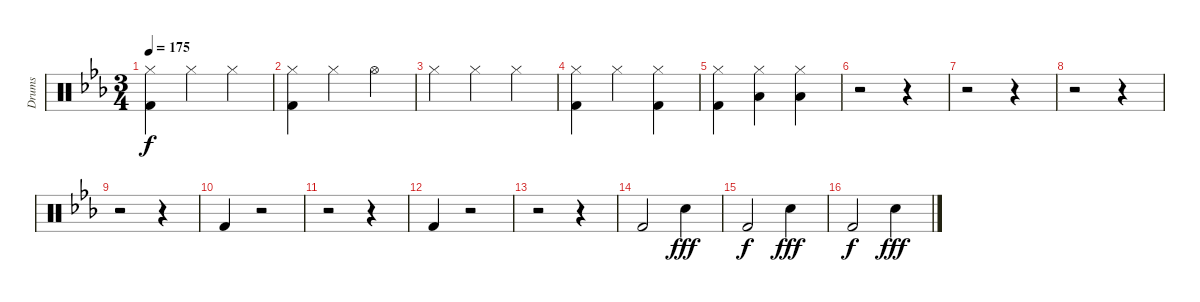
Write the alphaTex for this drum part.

\track ("Drums" "Drums") {instrument percussion}
\staff {score}
\articulation defaults
\ts (3 4)
\tempo 175
\clef neutral
\ks eb
("Hi-Hat (closed)" "Kick (hit) 2").4{dy f} "Hi-Hat (closed)".4 "Hi-Hat (closed)".4 |
("Hi-Hat (closed)" "Kick (hit) 2").4 "Hi-Hat (closed)".4 "Hi-Hat (open)".4 |
"Hi-Hat (closed)".4 "Hi-Hat (closed)".4 "Hi-Hat (closed)".4 |
("Hi-Hat (closed)" "Kick (hit) 2").4 "Hi-Hat (closed)".4 ("Hi-Hat (closed)" "Kick (hit) 2").4 |
("Hi-Hat (closed)" "Kick (hit) 2").4 ("Hi-Hat (closed)" "Low Tom (hit)").4 ("Hi-Hat (closed)" "Low Tom (hit)").4 |
r.2 r.4 |
r.2 r.4 |
r.2 r.4 |
r.2 r.4 |
"Kick (hit) 2".4 r.2 |
r.2 r.4 |
"Kick (hit) 2".4 r.2 |
r.2 r.4 |
"Kick (hit) 2".2 "Snare (hit) 2".4{dy fff} |
"Kick (hit) 2".2{dy f} "Snare (hit) 2".4{dy fff} |
"Kick (hit) 2".2{dy f} "Snare (hit) 2".4{dy fff}
